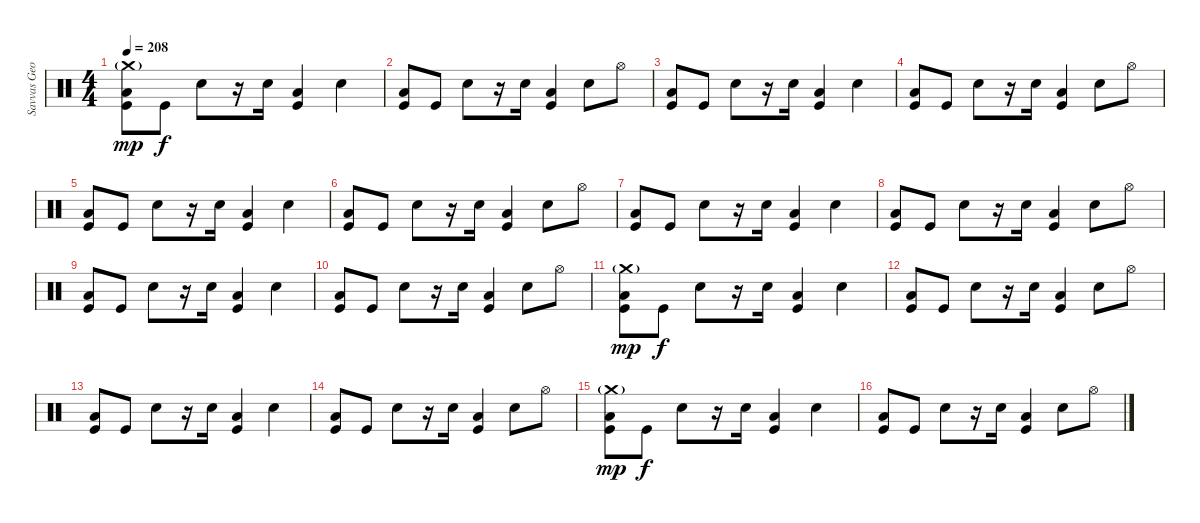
\track ("Savvas Georgiadis" "Savvas Geo") {instrument percussion}
\staff {score}
\articulation defaults
\ts (4 4)
\tempo 208
\clef neutral
\ks c
("Crash medium (hit)"{g} "Low Tom (hit)" "Kick (hit)").8{dy mp} "Kick (hit)".8{dy f} "Electric Snare (hit)".8 r.16 "Electric Snare (hit)".16 ("Low Tom (hit)" "Kick (hit)").4 "Electric Snare (hit)".4 |
("Low Tom (hit)" "Kick (hit)").8 "Kick (hit)".8 "Electric Snare (hit)".8 r.16 "Electric Snare (hit)".16 ("Low Tom (hit)" "Kick (hit)").4 "Electric Snare (hit)".8 "Hi-Hat (open)".8 |
("Low Tom (hit)" "Kick (hit)").8 "Kick (hit)".8 "Electric Snare (hit)".8 r.16 "Electric Snare (hit)".16 ("Low Tom (hit)" "Kick (hit)").4 "Electric Snare (hit)".4 |
("Low Tom (hit)" "Kick (hit)").8 "Kick (hit)".8 "Electric Snare (hit)".8 r.16 "Electric Snare (hit)".16 ("Low Tom (hit)" "Kick (hit)").4 "Electric Snare (hit)".8 "Hi-Hat (open)".8 |
("Low Tom (hit)" "Kick (hit)").8 "Kick (hit)".8 "Electric Snare (hit)".8 r.16 "Electric Snare (hit)".16 ("Low Tom (hit)" "Kick (hit)").4 "Electric Snare (hit)".4 |
("Low Tom (hit)" "Kick (hit)").8 "Kick (hit)".8 "Electric Snare (hit)".8 r.16 "Electric Snare (hit)".16 ("Low Tom (hit)" "Kick (hit)").4 "Electric Snare (hit)".8 "Hi-Hat (open)".8 |
("Low Tom (hit)" "Kick (hit)").8 "Kick (hit)".8 "Electric Snare (hit)".8 r.16 "Electric Snare (hit)".16 ("Low Tom (hit)" "Kick (hit)").4 "Electric Snare (hit)".4 |
("Low Tom (hit)" "Kick (hit)").8 "Kick (hit)".8 "Electric Snare (hit)".8 r.16 "Electric Snare (hit)".16 ("Low Tom (hit)" "Kick (hit)").4 "Electric Snare (hit)".8 "Hi-Hat (open)".8 |
("Low Tom (hit)" "Kick (hit)").8 "Kick (hit)".8 "Electric Snare (hit)".8 r.16 "Electric Snare (hit)".16 ("Low Tom (hit)" "Kick (hit)").4 "Electric Snare (hit)".4 |
("Low Tom (hit)" "Kick (hit)").8 "Kick (hit)".8 "Electric Snare (hit)".8 r.16 "Electric Snare (hit)".16 ("Low Tom (hit)" "Kick (hit)").4 "Electric Snare (hit)".8 "Hi-Hat (open)".8 |
("Crash medium (hit)"{g} "Low Tom (hit)" "Kick (hit)").8{dy mp} "Kick (hit)".8{dy f} "Electric Snare (hit)".8 r.16 "Electric Snare (hit)".16 ("Low Tom (hit)" "Kick (hit)").4 "Electric Snare (hit)".4 |
("Low Tom (hit)" "Kick (hit)").8 "Kick (hit)".8 "Electric Snare (hit)".8 r.16 "Electric Snare (hit)".16 ("Low Tom (hit)" "Kick (hit)").4 "Electric Snare (hit)".8 "Hi-Hat (open)".8 |
("Low Tom (hit)" "Kick (hit)").8 "Kick (hit)".8 "Electric Snare (hit)".8 r.16 "Electric Snare (hit)".16 ("Low Tom (hit)" "Kick (hit)").4 "Electric Snare (hit)".4 |
("Low Tom (hit)" "Kick (hit)").8 "Kick (hit)".8 "Electric Snare (hit)".8 r.16 "Electric Snare (hit)".16 ("Low Tom (hit)" "Kick (hit)").4 "Electric Snare (hit)".8 "Hi-Hat (open)".8 |
("Crash medium (hit)"{g} "Low Tom (hit)" "Kick (hit)").8{dy mp} "Kick (hit)".8{dy f} "Electric Snare (hit)".8 r.16 "Electric Snare (hit)".16 ("Low Tom (hit)" "Kick (hit)").4 "Electric Snare (hit)".4 |
("Low Tom (hit)" "Kick (hit)").8 "Kick (hit)".8 "Electric Snare (hit)".8 r.16 "Electric Snare (hit)".16 ("Low Tom (hit)" "Kick (hit)").4 "Electric Snare (hit)".8 "Hi-Hat (open)".8
